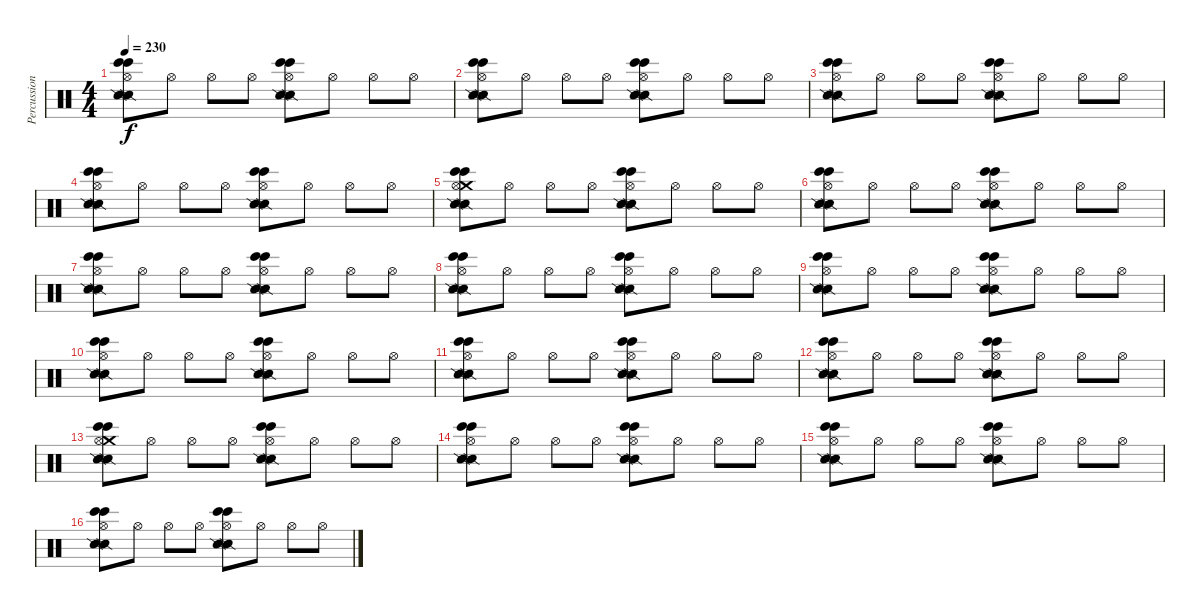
\track ("Percussion" "Percussion") {instrument percussion}
\staff {score}
\articulation defaults
\ts (4 4)
\tempo 230
\clef neutral
\ks c
("Snare (side stick) 2" "Bongo High (hit)" "Snare (side stick) 2" "Bongo High (hit)" "Hi-Hat (open)").8{dy f} "Hi-Hat (open)".8 "Hi-Hat (open)".8 "Hi-Hat (open)".8 ("Snare (side stick) 2" "Bongo High (hit)" "Snare (side stick) 2" "Bongo High (hit)" "Hi-Hat (open)").8 "Hi-Hat (open)".8 "Hi-Hat (open)".8 "Hi-Hat (open)".8 |
("Snare (side stick) 2" "Bongo High (hit)" "Snare (side stick) 2" "Bongo High (hit)" "Hi-Hat (open)").8 "Hi-Hat (open)".8 "Hi-Hat (open)".8 "Hi-Hat (open)".8 ("Snare (side stick) 2" "Bongo High (hit)" "Snare (side stick) 2" "Bongo High (hit)" "Hi-Hat (open)").8 "Hi-Hat (open)".8 "Hi-Hat (open)".8 "Hi-Hat (open)".8 |
("Snare (side stick) 2" "Bongo High (hit)" "Snare (side stick) 2" "Bongo High (hit)" "Hi-Hat (open)").8 "Hi-Hat (open)".8 "Hi-Hat (open)".8 "Hi-Hat (open)".8 ("Snare (side stick) 2" "Bongo High (hit)" "Snare (side stick) 2" "Bongo High (hit)" "Hi-Hat (open)").8 "Hi-Hat (open)".8 "Hi-Hat (open)".8 "Hi-Hat (open)".8 |
("Snare (side stick) 2" "Bongo High (hit)" "Snare (side stick) 2" "Bongo High (hit)" "Hi-Hat (open)").8 "Hi-Hat (open)".8 "Hi-Hat (open)".8 "Hi-Hat (open)".8 ("Snare (side stick) 2" "Bongo High (hit)" "Snare (side stick) 2" "Bongo High (hit)" "Hi-Hat (open)").8 "Hi-Hat (open)".8 "Hi-Hat (open)".8 "Hi-Hat (open)".8 |
("Snare (side stick) 2" "Bongo High (hit)" "Snare (side stick) 2" "Bongo High (hit)" "Crash medium (hit)" "Hi-Hat (open)").8{volume 11} "Hi-Hat (open)".8 "Hi-Hat (open)".8 "Hi-Hat (open)".8 ("Snare (side stick) 2" "Bongo High (hit)" "Snare (side stick) 2" "Bongo High (hit)" "Hi-Hat (open)").8 "Hi-Hat (open)".8 "Hi-Hat (open)".8 "Hi-Hat (open)".8 |
("Snare (side stick) 2" "Bongo High (hit)" "Snare (side stick) 2" "Bongo High (hit)" "Hi-Hat (open)").8 "Hi-Hat (open)".8 "Hi-Hat (open)".8 "Hi-Hat (open)".8 ("Snare (side stick) 2" "Bongo High (hit)" "Snare (side stick) 2" "Bongo High (hit)" "Hi-Hat (open)").8 "Hi-Hat (open)".8 "Hi-Hat (open)".8 "Hi-Hat (open)".8 |
("Snare (side stick) 2" "Bongo High (hit)" "Snare (side stick) 2" "Bongo High (hit)" "Hi-Hat (open)").8 "Hi-Hat (open)".8 "Hi-Hat (open)".8 "Hi-Hat (open)".8 ("Snare (side stick) 2" "Bongo High (hit)" "Snare (side stick) 2" "Bongo High (hit)" "Hi-Hat (open)").8 "Hi-Hat (open)".8 "Hi-Hat (open)".8 "Hi-Hat (open)".8 |
("Snare (side stick) 2" "Bongo High (hit)" "Snare (side stick) 2" "Bongo High (hit)" "Hi-Hat (open)").8 "Hi-Hat (open)".8 "Hi-Hat (open)".8 "Hi-Hat (open)".8 ("Snare (side stick) 2" "Bongo High (hit)" "Snare (side stick) 2" "Bongo High (hit)" "Hi-Hat (open)").8 "Hi-Hat (open)".8 "Hi-Hat (open)".8 "Hi-Hat (open)".8 |
("Snare (side stick) 2" "Bongo High (hit)" "Snare (side stick) 2" "Bongo High (hit)" "Hi-Hat (open)").8 "Hi-Hat (open)".8 "Hi-Hat (open)".8 "Hi-Hat (open)".8 ("Snare (side stick) 2" "Bongo High (hit)" "Snare (side stick) 2" "Bongo High (hit)" "Hi-Hat (open)").8 "Hi-Hat (open)".8 "Hi-Hat (open)".8 "Hi-Hat (open)".8 |
("Snare (side stick) 2" "Bongo High (hit)" "Snare (side stick) 2" "Bongo High (hit)" "Hi-Hat (open)").8 "Hi-Hat (open)".8 "Hi-Hat (open)".8 "Hi-Hat (open)".8 ("Snare (side stick) 2" "Bongo High (hit)" "Snare (side stick) 2" "Bongo High (hit)" "Hi-Hat (open)").8 "Hi-Hat (open)".8 "Hi-Hat (open)".8 "Hi-Hat (open)".8 |
("Snare (side stick) 2" "Bongo High (hit)" "Snare (side stick) 2" "Bongo High (hit)" "Hi-Hat (open)").8 "Hi-Hat (open)".8 "Hi-Hat (open)".8 "Hi-Hat (open)".8 ("Snare (side stick) 2" "Bongo High (hit)" "Snare (side stick) 2" "Bongo High (hit)" "Hi-Hat (open)").8 "Hi-Hat (open)".8 "Hi-Hat (open)".8 "Hi-Hat (open)".8 |
("Snare (side stick) 2" "Bongo High (hit)" "Snare (side stick) 2" "Bongo High (hit)" "Hi-Hat (open)").8 "Hi-Hat (open)".8 "Hi-Hat (open)".8 "Hi-Hat (open)".8 ("Snare (side stick) 2" "Bongo High (hit)" "Snare (side stick) 2" "Bongo High (hit)" "Hi-Hat (open)").8 "Hi-Hat (open)".8 "Hi-Hat (open)".8 "Hi-Hat (open)".8 |
("Snare (side stick) 2" "Bongo High (hit)" "Snare (side stick) 2" "Bongo High (hit)" "Crash medium (hit)" "Hi-Hat (open)").8 "Hi-Hat (open)".8 "Hi-Hat (open)".8 "Hi-Hat (open)".8 ("Snare (side stick) 2" "Bongo High (hit)" "Snare (side stick) 2" "Bongo High (hit)" "Hi-Hat (open)").8 "Hi-Hat (open)".8 "Hi-Hat (open)".8 "Hi-Hat (open)".8 |
("Snare (side stick) 2" "Bongo High (hit)" "Snare (side stick) 2" "Bongo High (hit)" "Hi-Hat (open)").8 "Hi-Hat (open)".8 "Hi-Hat (open)".8 "Hi-Hat (open)".8 ("Snare (side stick) 2" "Bongo High (hit)" "Snare (side stick) 2" "Bongo High (hit)" "Hi-Hat (open)").8 "Hi-Hat (open)".8 "Hi-Hat (open)".8 "Hi-Hat (open)".8 |
("Snare (side stick) 2" "Bongo High (hit)" "Snare (side stick) 2" "Bongo High (hit)" "Hi-Hat (open)").8 "Hi-Hat (open)".8 "Hi-Hat (open)".8 "Hi-Hat (open)".8 ("Snare (side stick) 2" "Bongo High (hit)" "Snare (side stick) 2" "Bongo High (hit)" "Hi-Hat (open)").8 "Hi-Hat (open)".8 "Hi-Hat (open)".8 "Hi-Hat (open)".8 |
("Snare (side stick) 2" "Bongo High (hit)" "Snare (side stick) 2" "Bongo High (hit)" "Hi-Hat (open)").8 "Hi-Hat (open)".8 "Hi-Hat (open)".8 "Hi-Hat (open)".8 ("Snare (side stick) 2" "Bongo High (hit)" "Snare (side stick) 2" "Bongo High (hit)" "Hi-Hat (open)").8 "Hi-Hat (open)".8 "Hi-Hat (open)".8 "Hi-Hat (open)".8
